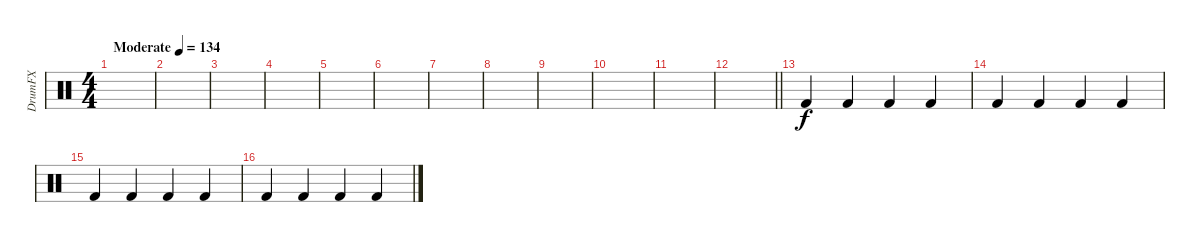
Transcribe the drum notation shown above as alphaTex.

\track ("DrumFX" "DrumFX") {instrument percussion}
\staff {score}
\articulation defaults
\ts (4 4)
\tempo (134 "Moderate")
\clef neutral
\ks c
|
|
|
|
|
|
|
|
|
|
|
\barLineRight lightlight
|
\section ("" "")
"Kick (hit) 2".4 "Kick (hit) 2".4 "Kick (hit) 2".4 "Kick (hit) 2".4 |
"Kick (hit) 2".4 "Kick (hit) 2".4 "Kick (hit) 2".4 "Kick (hit) 2".4 |
"Kick (hit) 2".4 "Kick (hit) 2".4 "Kick (hit) 2".4 "Kick (hit) 2".4 |
"Kick (hit) 2".4 "Kick (hit) 2".4 "Kick (hit) 2".4 "Kick (hit) 2".4
